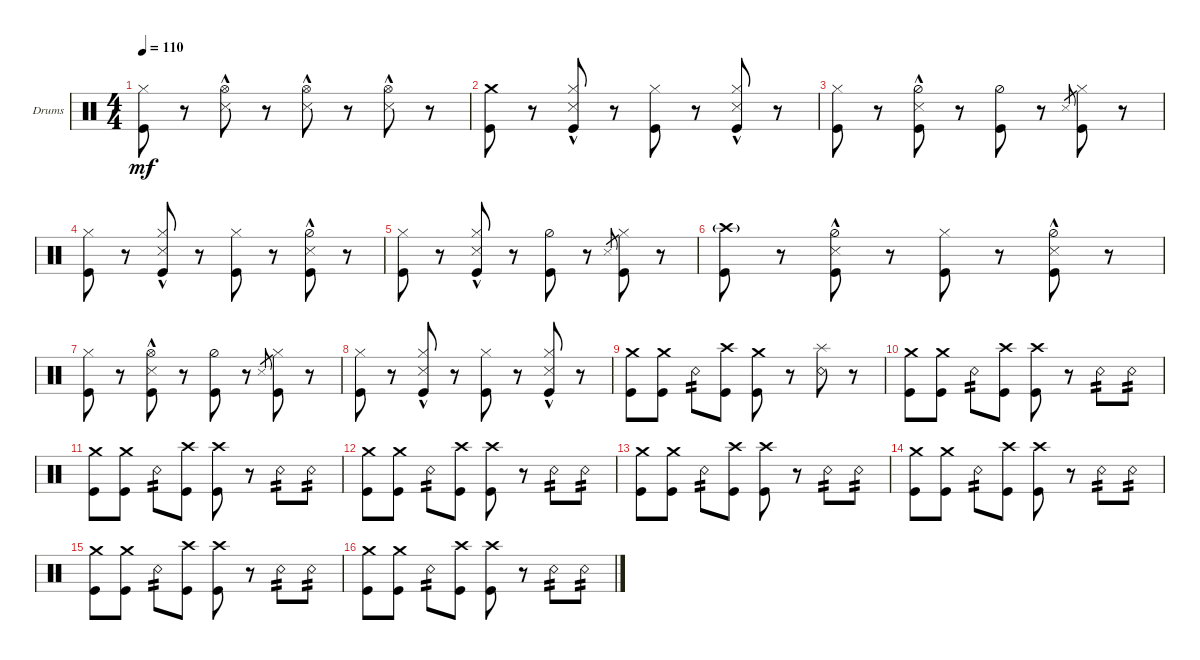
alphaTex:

\defaultSystemsLayout 4
\bracketExtendMode groupsimilarinstruments
\firstSystemTrackNameOrientation horizontal
\otherSystemsTrackNameOrientation horizontal
\track ("Drumkit" "Drums") {instrument percussion}
\staff {score}
\articulation defaults
\ts (4 4)
\tempo 110
\clef neutral
\scale
0.333333
\ks c
("Kick (hit)" "Hi-Hat (closed)").8{dy mf} r.8 ("Snare (side stick) 3"{hac} "Hi-Hat (open)").8 r.8 ("Hi-Hat (open)" "Snare (side stick) 3"{hac}).8 r.8 ("Hi-Hat (open)" "Snare (side stick) 3"{hac}).8 r.8 |
\scale
0.333333 ("Kick (hit)" "Crash medium (hit)").8 r.8 ("Snare (side stick) 3"{hac} "Hi-Hat (closed)" "Kick (hit)").8 r.8 ("Kick (hit)" "Hi-Hat (closed)").8 r.8 ("Snare (side stick) 3"{hac} "Hi-Hat (closed)" "Kick (hit)").8 r.8 |
\scale
0.333333 ("Kick (hit)" "Hi-Hat (closed)").8 r.8 ("Snare (side stick) 3"{hac} "Hi-Hat (half)" "Kick (hit)").8 r.8 ("Kick (hit)" "Hi-Hat (half)").8 r.8 "Snare (side stick) 3".8{gr} ("Hi-Hat (closed)" "Kick (hit)").8 r.8 |
\scale
0.333333 ("Kick (hit)" "Hi-Hat (closed)").8 r.8 ("Snare (side stick) 3"{hac} "Hi-Hat (closed)" "Kick (hit)").8 r.8 ("Kick (hit)" "Hi-Hat (closed)").8 r.8 ("Snare (side stick) 3"{hac} "Hi-Hat (half)" "Kick (hit)").8 r.8 |
\scale
0.333333 ("Kick (hit)" "Hi-Hat (closed)").8 r.8 ("Snare (side stick) 3"{hac} "Hi-Hat (closed)" "Kick (hit)").8 r.8 ("Kick (hit)" "Hi-Hat (half)").8 r.8 "Snare (side stick) 3".8{gr} ("Hi-Hat (closed)" "Kick (hit)").8 r.8 |
\scale
0.333333 ("Kick (hit)" "Crash high (hit)"{g}).8 r.8 ("Snare (side stick) 3"{hac} "Hi-Hat (half)" "Kick (hit)").8 r.8 ("Kick (hit)" "Hi-Hat (closed)").8 r.8 ("Snare (side stick) 3"{hac} "Hi-Hat (half)" "Kick (hit)").8 r.8 |
\scale
0.333333 ("Kick (hit)" "Hi-Hat (closed)").8 r.8 ("Snare (side stick) 3"{hac} "Hi-Hat (open)" "Kick (hit)").8 r.8 ("Kick (hit)" "Hi-Hat (half)").8 r.8 "Snare (side stick) 3".8{gr} ("Hi-Hat (closed)" "Kick (hit)").8 r.8 |
\scale
0.333333 ("Kick (hit)" "Hi-Hat (closed)").8 r.8 ("Snare (side stick) 3"{hac} "Hi-Hat (closed)" "Kick (hit)").8 r.8 ("Kick (hit)" "Hi-Hat (closed)").8 r.8 ("Snare (side stick) 3"{hac} "Hi-Hat (closed)" "Kick (hit)").8 r.8 |
\scale
0.333333 ("Kick (hit)" "Crash medium (hit)").8 ("Kick (hit)" "Crash medium (hit)").8 "Snare (rim shot)".8{tp 2} ("Kick (hit)" "Crash high (hit)").8 ("Kick (hit)" "Crash medium (hit)").8 r.8 ("Snare (rim shot)" "Splash (hit)").8 r.8 |
\scale
0.333333 ("Kick (hit)" "Crash medium (hit)").8 ("Kick (hit)" "Crash medium (hit)").8 "Snare (rim shot)".8{tp 2} ("Kick (hit)" "Crash high (hit)").8 ("Kick (hit)" "Crash high (hit)").8 r.8 "Snare (rim shot)".8{tp 2} "Snare (rim shot)".8{tp 2} |
\scale
0.333333 ("Kick (hit)" "Crash medium (hit)").8 ("Kick (hit)" "Crash medium (hit)").8 "Snare (rim shot)".8{tp 2} ("Kick (hit)" "Crash high (hit)").8 ("Kick (hit)" "Crash high (hit)").8 r.8 "Snare (rim shot)".8{tp 2} "Snare (rim shot)".8{tp 2} |
\scale
0.333333 ("Kick (hit)" "Crash medium (hit)").8 ("Kick (hit)" "Crash medium (hit)").8 "Snare (rim shot)".8{tp 2} ("Kick (hit)" "Crash high (hit)").8 ("Kick (hit)" "Crash high (hit)").8 r.8 "Snare (rim shot)".8{tp 2} "Snare (rim shot)".8{tp 2} |
\scale
0.333333 ("Kick (hit)" "Crash medium (hit)").8 ("Kick (hit)" "Crash medium (hit)").8 "Snare (rim shot)".8{tp 2} ("Kick (hit)" "Crash high (hit)").8 ("Kick (hit)" "Crash high (hit)").8 r.8 "Snare (rim shot)".8{tp 2} "Snare (rim shot)".8{tp 2} |
\scale
0.333333 ("Kick (hit)" "Crash medium (hit)").8 ("Kick (hit)" "Crash medium (hit)").8 "Snare (rim shot)".8{tp 2} ("Kick (hit)" "Crash high (hit)").8 ("Kick (hit)" "Crash high (hit)").8 r.8 "Snare (rim shot)".8{tp 2} "Snare (rim shot)".8{tp 2} |
\scale
0.333333 ("Kick (hit)" "Crash medium (hit)").8 ("Kick (hit)" "Crash medium (hit)").8 "Snare (rim shot)".8{tp 2} ("Kick (hit)" "Crash high (hit)").8 ("Kick (hit)" "Crash high (hit)").8 r.8 "Snare (rim shot)".8{tp 2} "Snare (rim shot)".8{tp 2} |
\scale
0.333333 ("Kick (hit)" "Crash medium (hit)").8 ("Kick (hit)" "Crash medium (hit)").8 "Snare (rim shot)".8{tp 2} ("Kick (hit)" "Crash high (hit)").8 ("Kick (hit)" "Crash high (hit)").8 r.8 "Snare (rim shot)".8{tp 2} "Snare (rim shot)".8{tp 2}
